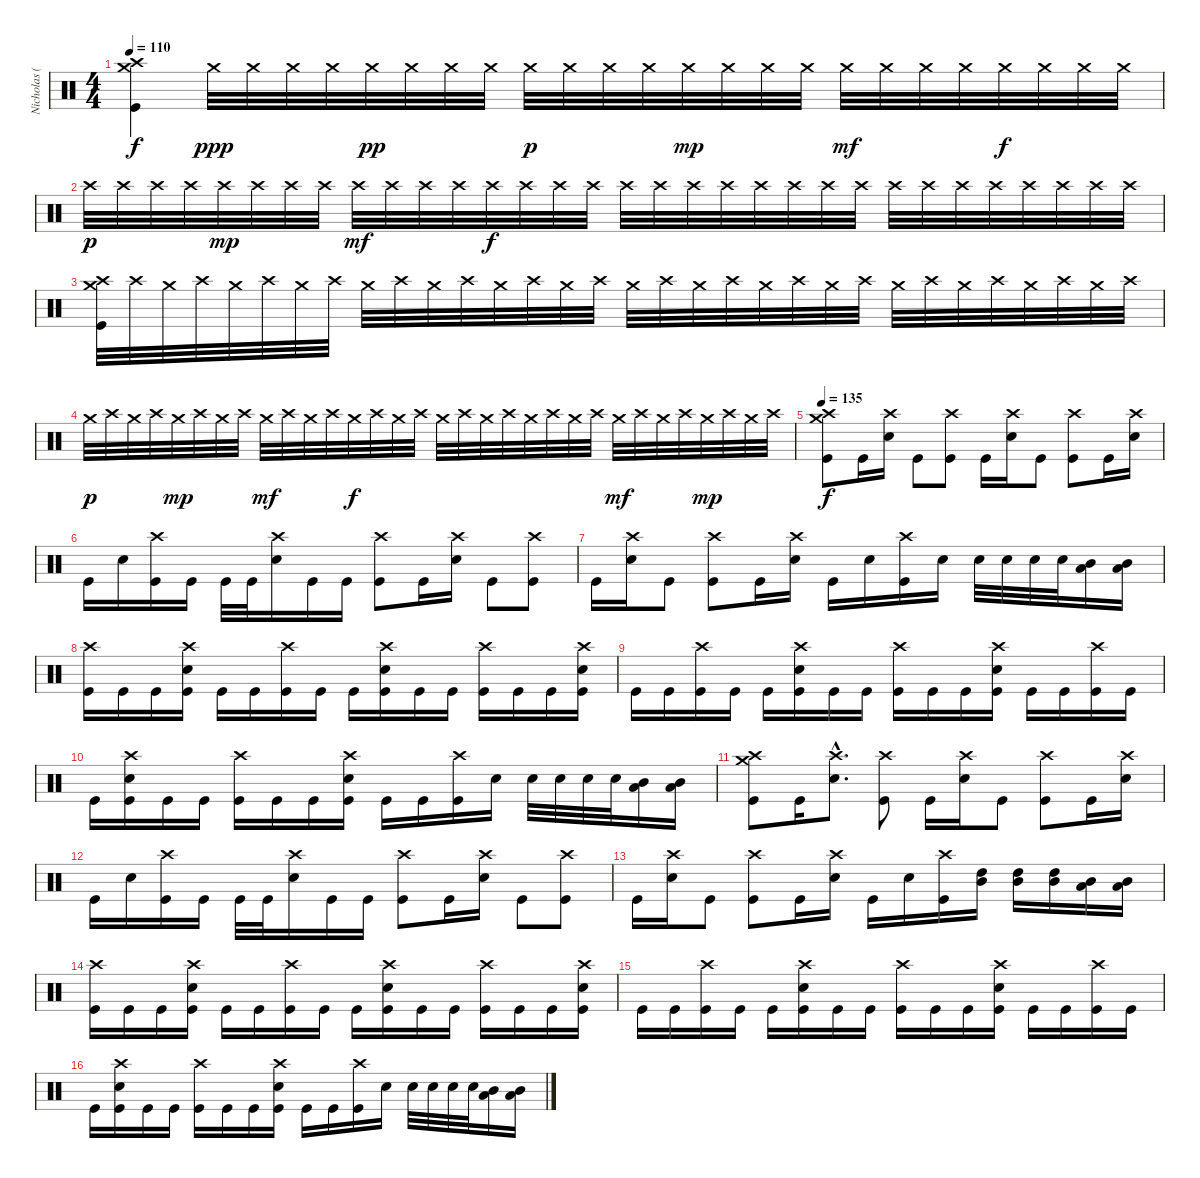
\track ("Nicholas (Drums)" "Nicholas (") {instrument percussion}
\staff {score}
\articulation defaults
\ts (4 4)
\tempo 110
\clef neutral
\ks c
("Crash high (hit)" "Crash medium (hit)" "Kick (hit)").4{dy f} "Crash medium (hit)".32{dy ppp} "Crash medium (hit)".32 "Crash medium (hit)".32 "Crash medium (hit)".32 "Crash medium (hit)".32{dy pp} "Crash medium (hit)".32 "Crash medium (hit)".32 "Crash medium (hit)".32 "Crash medium (hit)".32{dy p} "Crash medium (hit)".32 "Crash medium (hit)".32 "Crash medium (hit)".32 "Crash medium (hit)".32{dy mp} "Crash medium (hit)".32 "Crash medium (hit)".32 "Crash medium (hit)".32 "Crash medium (hit)".32{dy mf} "Crash medium (hit)".32 "Crash medium (hit)".32 "Crash medium (hit)".32 "Crash medium (hit)".32{dy f} "Crash medium (hit)".32 "Crash medium (hit)".32 "Crash medium (hit)".32 |
"Crash high (hit)".32{dy p} "Crash high (hit)".32 "Crash high (hit)".32 "Crash high (hit)".32 "Crash high (hit)".32{dy mp} "Crash high (hit)".32 "Crash high (hit)".32 "Crash high (hit)".32 "Crash high (hit)".32{dy mf} "Crash high (hit)".32 "Crash high (hit)".32 "Crash high (hit)".32 "Crash high (hit)".32{dy f} "Crash high (hit)".32 "Crash high (hit)".32 "Crash high (hit)".32 "Crash high (hit)".32 "Crash high (hit)".32 "Crash high (hit)".32 "Crash high (hit)".32 "Crash high (hit)".32 "Crash high (hit)".32 "Crash high (hit)".32 "Crash high (hit)".32 "Crash high (hit)".32 "Crash high (hit)".32 "Crash high (hit)".32 "Crash high (hit)".32 "Crash high (hit)".32 "Crash high (hit)".32 "Crash high (hit)".32 "Crash high (hit)".32 |
("Crash high (hit)" "Crash medium (hit)" "Kick (hit)").32 "Crash high (hit)".32 "Crash medium (hit)".32 "Crash high (hit)".32 "Crash medium (hit)".32 "Crash high (hit)".32 "Crash medium (hit)".32 "Crash high (hit)".32 "Crash medium (hit)".32 "Crash high (hit)".32 "Crash medium (hit)".32 "Crash high (hit)".32 "Crash medium (hit)".32 "Crash high (hit)".32 "Crash medium (hit)".32 "Crash high (hit)".32 "Crash medium (hit)".32 "Crash high (hit)".32 "Crash medium (hit)".32 "Crash high (hit)".32 "Crash medium (hit)".32 "Crash high (hit)".32 "Crash medium (hit)".32 "Crash high (hit)".32 "Crash medium (hit)".32 "Crash high (hit)".32 "Crash medium (hit)".32 "Crash high (hit)".32 "Crash medium (hit)".32 "Crash high (hit)".32 "Crash medium (hit)".32 "Crash high (hit)".32 |
"Crash medium (hit)".32{dy p} "Crash high (hit)".32 "Crash medium (hit)".32 "Crash high (hit)".32 "Crash medium (hit)".32{dy mp} "Crash high (hit)".32 "Crash medium (hit)".32 "Crash high (hit)".32 "Crash medium (hit)".32{dy mf} "Crash high (hit)".32 "Crash medium (hit)".32 "Crash high (hit)".32 "Crash medium (hit)".32{dy f} "Crash high (hit)".32 "Crash medium (hit)".32 "Crash high (hit)".32 "Crash medium (hit)".32 "Crash high (hit)".32 "Crash medium (hit)".32 "Crash high (hit)".32 "Crash medium (hit)".32 "Crash high (hit)".32 "Crash medium (hit)".32 "Crash high (hit)".32 "Crash medium (hit)".32{dy mf} "Crash high (hit)".32 "Crash medium (hit)".32 "Crash high (hit)".32 "Crash medium (hit)".32{dy mp} "Crash high (hit)".32 "Crash medium (hit)".32 "Crash high (hit)".32 |
\tempo 135
("Crash medium (hit)" "Crash high (hit)" "Kick (hit)").8{dy f} "Kick (hit)".16 ("Crash high (hit)" "Electric Snare (hit)").16 "Kick (hit)".8 ("Crash high (hit)" "Kick (hit)").8 "Kick (hit)".16 ("Crash high (hit)" "Electric Snare (hit)").16 "Kick (hit)".8 ("Crash high (hit)" "Kick (hit)").8 "Kick (hit)".16 ("Crash high (hit)" "Electric Snare (hit)").16 |
"Kick (hit)".16 "Electric Snare (hit)".16 ("Crash high (hit)" "Kick (hit)").16 "Kick (hit)".16 "Kick (hit)".32 "Kick (hit)".32 ("Crash high (hit)" "Electric Snare (hit)").16 "Kick (hit)".16 "Kick (hit)".16 ("Crash high (hit)" "Kick (hit)").8 "Kick (hit)".16 ("Crash high (hit)" "Electric Snare (hit)").16 "Kick (hit)".8 ("Crash high (hit)" "Kick (hit)").8 |
"Kick (hit)".16 ("Crash high (hit)" "Electric Snare (hit)").16 "Kick (hit)".8 ("Crash high (hit)" "Kick (hit)").8 "Kick (hit)".16 ("Crash high (hit)" "Electric Snare (hit)").16 "Kick (hit)".16 "Electric Snare (hit)".16 ("Crash high (hit)" "Kick (hit)").16 "Electric Snare (hit)".16 "Electric Snare (hit)".32 "Electric Snare (hit)".32 "Electric Snare (hit)".32 "Electric Snare (hit)".32 ("Mid Tom (hit)" "Low Tom (hit)").16 ("Mid Tom (hit)" "Low Tom (hit)").16 |
("Crash high (hit)" "Kick (hit)").16 "Kick (hit)".16 "Kick (hit)".16 ("Crash high (hit)" "Electric Snare (hit)" "Kick (hit)").16 "Kick (hit)".16 "Kick (hit)".16 ("Crash high (hit)" "Kick (hit)").16 "Kick (hit)".16 "Kick (hit)".16 ("Crash high (hit)" "Electric Snare (hit)" "Kick (hit)").16 "Kick (hit)".16 "Kick (hit)".16 ("Crash high (hit)" "Kick (hit)").16 "Kick (hit)".16 "Kick (hit)".16 ("Crash high (hit)" "Electric Snare (hit)" "Kick (hit)").16 |
"Kick (hit)".16 "Kick (hit)".16 ("Crash high (hit)" "Kick (hit)").16 "Kick (hit)".16 "Kick (hit)".16 ("Crash high (hit)" "Electric Snare (hit)" "Kick (hit)").16 "Kick (hit)".16 "Kick (hit)".16 ("Crash high (hit)" "Kick (hit)").16 "Kick (hit)".16 "Kick (hit)".16 ("Crash high (hit)" "Electric Snare (hit)" "Kick (hit)").16 "Kick (hit)".16 "Kick (hit)".16 ("Crash high (hit)" "Kick (hit)").16 "Kick (hit)".16 |
"Kick (hit)".16 ("Crash high (hit)" "Electric Snare (hit)" "Kick (hit)").16 "Kick (hit)".16 "Kick (hit)".16 ("Crash high (hit)" "Kick (hit)").16 "Kick (hit)".16 "Kick (hit)".16 ("Crash high (hit)" "Electric Snare (hit)" "Kick (hit)").16 "Kick (hit)".16 "Kick (hit)".16 ("Crash high (hit)" "Kick (hit)").16 "Electric Snare (hit)".16 "Electric Snare (hit)".32 "Electric Snare (hit)".32 "Electric Snare (hit)".32 "Electric Snare (hit)".32 ("Mid Tom (hit)" "Low Tom (hit)").16 ("Mid Tom (hit)" "Low Tom (hit)").16 |
("Crash medium (hit)" "Crash high (hit)" "Kick (hit)").8 "Kick (hit)".16 ("Crash high (hit)"{hac} "Electric Snare (hit)"{hac}).8{d} ("Crash high (hit)" "Kick (hit)").8 "Kick (hit)".16 ("Crash high (hit)" "Electric Snare (hit)").16 "Kick (hit)".8 ("Crash high (hit)" "Kick (hit)").8 "Kick (hit)".16 ("Crash high (hit)" "Electric Snare (hit)").16 |
"Kick (hit)".16 "Electric Snare (hit)".16 ("Crash high (hit)" "Kick (hit)").16 "Kick (hit)".16 "Kick (hit)".32 "Kick (hit)".32 ("Crash high (hit)" "Electric Snare (hit)").16 "Kick (hit)".16 "Kick (hit)".16 ("Crash high (hit)" "Kick (hit)").8 "Kick (hit)".16 ("Crash high (hit)" "Electric Snare (hit)").16 "Kick (hit)".8 ("Crash high (hit)" "Kick (hit)").8 |
"Kick (hit)".16 ("Crash high (hit)" "Electric Snare (hit)").16 "Kick (hit)".8 ("Crash high (hit)" "Kick (hit)").8 "Kick (hit)".16 ("Crash high (hit)" "Electric Snare (hit)").16 "Kick (hit)".16 "Electric Snare (hit)".16 ("Crash high (hit)" "Kick (hit)").16 ("High Tom (hit)" "Mid Tom (hit)").16 ("High Tom (hit)" "Mid Tom (hit)").16 ("High Tom (hit)" "Mid Tom (hit)").16 ("Mid Tom (hit)" "Low Tom (hit)").16 ("Mid Tom (hit)" "Low Tom (hit)").16 |
("Crash high (hit)" "Kick (hit)").16 "Kick (hit)".16 "Kick (hit)".16 ("Crash high (hit)" "Electric Snare (hit)" "Kick (hit)").16 "Kick (hit)".16 "Kick (hit)".16 ("Crash high (hit)" "Kick (hit)").16 "Kick (hit)".16 "Kick (hit)".16 ("Crash high (hit)" "Electric Snare (hit)" "Kick (hit)").16 "Kick (hit)".16 "Kick (hit)".16 ("Crash high (hit)" "Kick (hit)").16 "Kick (hit)".16 "Kick (hit)".16 ("Crash high (hit)" "Electric Snare (hit)" "Kick (hit)").16 |
"Kick (hit)".16 "Kick (hit)".16 ("Crash high (hit)" "Kick (hit)").16 "Kick (hit)".16 "Kick (hit)".16 ("Crash high (hit)" "Electric Snare (hit)" "Kick (hit)").16 "Kick (hit)".16 "Kick (hit)".16 ("Crash high (hit)" "Kick (hit)").16 "Kick (hit)".16 "Kick (hit)".16 ("Crash high (hit)" "Electric Snare (hit)" "Kick (hit)").16 "Kick (hit)".16 "Kick (hit)".16 ("Crash high (hit)" "Kick (hit)").16 "Kick (hit)".16 |
"Kick (hit)".16 ("Crash high (hit)" "Electric Snare (hit)" "Kick (hit)").16 "Kick (hit)".16 "Kick (hit)".16 ("Crash high (hit)" "Kick (hit)").16 "Kick (hit)".16 "Kick (hit)".16 ("Crash high (hit)" "Electric Snare (hit)" "Kick (hit)").16 "Kick (hit)".16 "Kick (hit)".16 ("Crash high (hit)" "Kick (hit)").16 "Electric Snare (hit)".16 "Electric Snare (hit)".32 "Electric Snare (hit)".32 "Electric Snare (hit)".32 "Electric Snare (hit)".32 ("Mid Tom (hit)" "Low Tom (hit)").16 ("Mid Tom (hit)" "Low Tom (hit)").16
